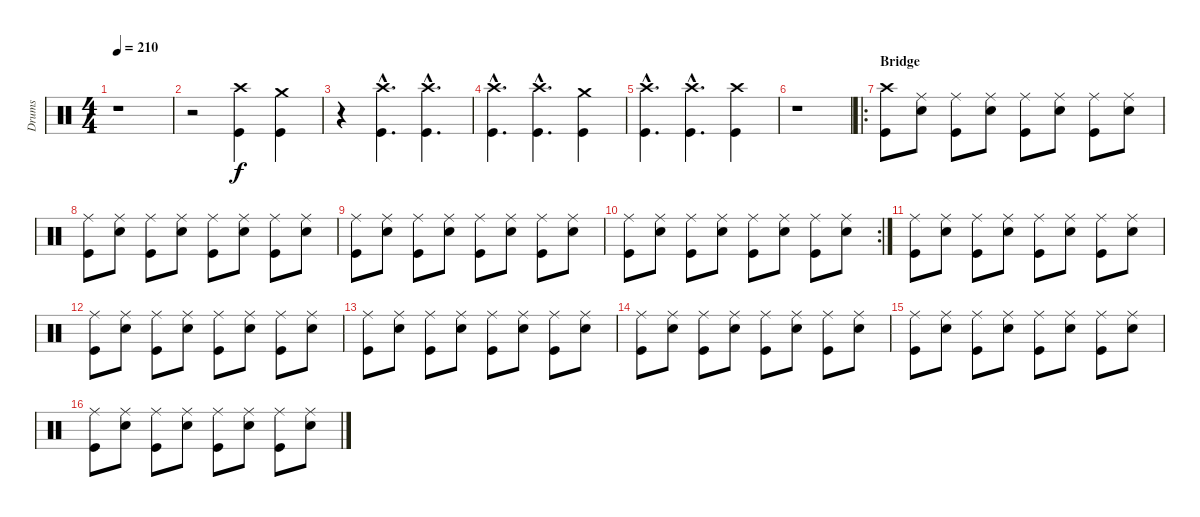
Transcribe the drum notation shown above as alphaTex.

\track ("Drums" "Drums") {instrument percussion}
\staff {score}
\articulation defaults
\ts (4 4)
\tempo 210
\clef neutral
\ks c
r.1{dy f} |
r.2 ("Crash high (hit)" "Kick (hit)").4 ("Crash medium (hit)" "Kick (hit)").4 |
r.4 ("Crash high (hit)"{hac} "Kick (hit)"{hac}).4{d} ("Crash high (hit)"{hac} "Kick (hit)"{hac}).4{d} |
("Crash high (hit)"{hac} "Kick (hit)"{hac}).4{d} ("Crash high (hit)"{hac} "Kick (hit)"{hac}).4{d} ("Crash medium (hit)" "Kick (hit)").4 |
("Crash high (hit)"{hac} "Kick (hit)"{hac}).4{d} ("Crash high (hit)"{hac} "Kick (hit)"{hac}).4{d} ("Crash high (hit)" "Kick (hit)").4 |
r.1 |
\ro
\section ("" "Bridge")
("Crash high (hit)" "Kick (hit)").8 ("Ride (middle)" "Snare (hit) 2").8 ("Ride (middle)" "Kick (hit)").8 ("Ride (middle)" "Snare (hit) 2").8 ("Ride (middle)" "Kick (hit)").8 ("Ride (middle)" "Snare (hit) 2").8 ("Ride (middle)" "Kick (hit)").8 ("Ride (middle)" "Snare (hit) 2").8 |
("Ride (middle)" "Kick (hit)").8 ("Ride (middle)" "Snare (hit) 2").8 ("Ride (middle)" "Kick (hit)").8 ("Ride (middle)" "Snare (hit) 2").8 ("Ride (middle)" "Kick (hit)").8 ("Ride (middle)" "Snare (hit) 2").8 ("Ride (middle)" "Kick (hit)").8 ("Ride (middle)" "Snare (hit) 2").8 |
("Ride (middle)" "Kick (hit)").8 ("Ride (middle)" "Snare (hit) 2").8 ("Ride (middle)" "Kick (hit)").8 ("Ride (middle)" "Snare (hit) 2").8 ("Ride (middle)" "Kick (hit)").8 ("Ride (middle)" "Snare (hit) 2").8 ("Ride (middle)" "Kick (hit)").8 ("Ride (middle)" "Snare (hit) 2").8 |
\rc 2
("Ride (middle)" "Kick (hit)").8 ("Ride (middle)" "Snare (hit) 2").8 ("Ride (middle)" "Kick (hit)").8 ("Ride (middle)" "Snare (hit) 2").8 ("Ride (middle)" "Kick (hit)").8 ("Ride (middle)" "Snare (hit) 2").8 ("Ride (middle)" "Kick (hit)").8 ("Ride (middle)" "Snare (hit) 2").8 |
("Ride (middle)" "Kick (hit)").8 ("Ride (middle)" "Snare (hit) 2").8 ("Ride (middle)" "Kick (hit)").8 ("Ride (middle)" "Snare (hit) 2").8 ("Ride (middle)" "Kick (hit)").8 ("Ride (middle)" "Snare (hit) 2").8 ("Ride (middle)" "Kick (hit)").8 ("Ride (middle)" "Snare (hit) 2").8 |
("Ride (middle)" "Kick (hit)").8 ("Ride (middle)" "Snare (hit) 2").8 ("Ride (middle)" "Kick (hit)").8 ("Ride (middle)" "Snare (hit) 2").8 ("Ride (middle)" "Kick (hit)").8 ("Ride (middle)" "Snare (hit) 2").8 ("Ride (middle)" "Kick (hit)").8 ("Ride (middle)" "Snare (hit) 2").8 |
("Ride (middle)" "Kick (hit)").8 ("Ride (middle)" "Snare (hit) 2").8 ("Ride (middle)" "Kick (hit)").8 ("Ride (middle)" "Snare (hit) 2").8 ("Ride (middle)" "Kick (hit)").8 ("Ride (middle)" "Snare (hit) 2").8 ("Ride (middle)" "Kick (hit)").8 ("Ride (middle)" "Snare (hit) 2").8 |
("Ride (middle)" "Kick (hit)").8 ("Ride (middle)" "Snare (hit) 2").8 ("Ride (middle)" "Kick (hit)").8 ("Ride (middle)" "Snare (hit) 2").8 ("Ride (middle)" "Kick (hit)").8 ("Ride (middle)" "Snare (hit) 2").8 ("Ride (middle)" "Kick (hit)").8 ("Ride (middle)" "Snare (hit) 2").8 |
("Ride (middle)" "Kick (hit)").8 ("Ride (middle)" "Snare (hit) 2").8 ("Ride (middle)" "Kick (hit)").8 ("Ride (middle)" "Snare (hit) 2").8 ("Ride (middle)" "Kick (hit)").8 ("Ride (middle)" "Snare (hit) 2").8 ("Ride (middle)" "Kick (hit)").8 ("Ride (middle)" "Snare (hit) 2").8 |
("Ride (middle)" "Kick (hit)").8 ("Ride (middle)" "Snare (hit) 2").8 ("Ride (middle)" "Kick (hit)").8 ("Ride (middle)" "Snare (hit) 2").8 ("Ride (middle)" "Kick (hit)").8 ("Ride (middle)" "Snare (hit) 2").8 ("Ride (middle)" "Kick (hit)").8 ("Ride (middle)" "Snare (hit) 2").8
